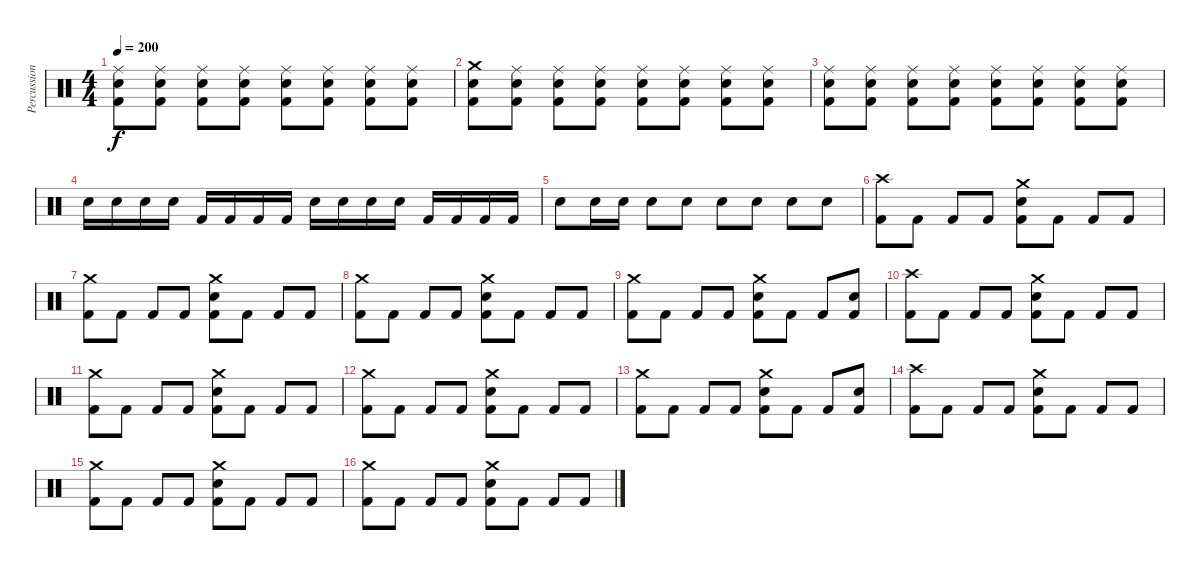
\track ("Percussion" "Percussion") {instrument percussion}
\staff {score}
\articulation defaults
\ts (4 4)
\tempo 200
\clef neutral
\ks c
("Ride (middle)" "Electric Snare (hit)" "Kick (hit) 2").8{dy f} ("Ride (middle)" "Electric Snare (hit)" "Kick (hit) 2").8 ("Ride (middle)" "Electric Snare (hit)" "Kick (hit) 2").8 ("Ride (middle)" "Electric Snare (hit)" "Kick (hit) 2").8 ("Ride (middle)" "Electric Snare (hit)" "Kick (hit) 2").8 ("Ride (middle)" "Electric Snare (hit)" "Kick (hit) 2").8 ("Ride (middle)" "Electric Snare (hit)" "Kick (hit) 2").8 ("Ride (middle)" "Electric Snare (hit)" "Kick (hit) 2").8 |
("Crash medium (hit)" "Electric Snare (hit)" "Kick (hit) 2").8 ("Ride (middle)" "Electric Snare (hit)" "Kick (hit) 2").8 ("Ride (middle)" "Electric Snare (hit)" "Kick (hit) 2").8 ("Ride (middle)" "Electric Snare (hit)" "Kick (hit) 2").8 ("Ride (middle)" "Electric Snare (hit)" "Kick (hit) 2").8 ("Ride (middle)" "Electric Snare (hit)" "Kick (hit) 2").8 ("Ride (middle)" "Electric Snare (hit)" "Kick (hit) 2").8 ("Ride (middle)" "Electric Snare (hit)" "Kick (hit) 2").8 |
("Ride (middle)" "Electric Snare (hit)" "Kick (hit) 2").8 ("Ride (middle)" "Electric Snare (hit)" "Kick (hit) 2").8 ("Ride (middle)" "Electric Snare (hit)" "Kick (hit) 2").8 ("Ride (middle)" "Electric Snare (hit)" "Kick (hit) 2").8 ("Ride (middle)" "Electric Snare (hit)" "Kick (hit) 2").8 ("Ride (middle)" "Electric Snare (hit)" "Kick (hit) 2").8 ("Ride (middle)" "Electric Snare (hit)" "Kick (hit) 2").8 ("Ride (middle)" "Electric Snare (hit)" "Kick (hit) 2").8 |
"Electric Snare (hit)".16 "Electric Snare (hit)".16 "Electric Snare (hit)".16 "Electric Snare (hit)".16 "Kick (hit) 2".16 "Kick (hit) 2".16 "Kick (hit) 2".16 "Kick (hit) 2".16 "Electric Snare (hit)".16 "Electric Snare (hit)".16 "Electric Snare (hit)".16 "Electric Snare (hit)".16 "Kick (hit) 2".16 "Kick (hit) 2".16 "Kick (hit) 2".16 "Kick (hit) 2".16 |
"Electric Snare (hit)".8 "Electric Snare (hit)".16 "Electric Snare (hit)".16 "Electric Snare (hit)".8 "Electric Snare (hit)".8 "Electric Snare (hit)".8 "Electric Snare (hit)".8 "Electric Snare (hit)".8 "Electric Snare (hit)".8 |
("Crash high (hit)" "Kick (hit) 2").8 "Kick (hit) 2".8 "Kick (hit) 2".8 "Kick (hit) 2".8 ("Crash medium (hit)" "Electric Snare (hit)" "Kick (hit) 2").8 "Kick (hit) 2".8 "Kick (hit) 2".8 "Kick (hit) 2".8 |
("Crash medium (hit)" "Kick (hit) 2").8 "Kick (hit) 2".8 "Kick (hit) 2".8 "Kick (hit) 2".8 ("Crash medium (hit)" "Electric Snare (hit)" "Kick (hit) 2").8 "Kick (hit) 2".8 "Kick (hit) 2".8 "Kick (hit) 2".8 |
("Crash medium (hit)" "Kick (hit) 2").8 "Kick (hit) 2".8 "Kick (hit) 2".8 "Kick (hit) 2".8 ("Crash medium (hit)" "Electric Snare (hit)" "Kick (hit) 2").8 "Kick (hit) 2".8 "Kick (hit) 2".8 "Kick (hit) 2".8 |
("Crash medium (hit)" "Kick (hit) 2").8 "Kick (hit) 2".8 "Kick (hit) 2".8 "Kick (hit) 2".8 ("Crash medium (hit)" "Electric Snare (hit)" "Kick (hit) 2").8 "Kick (hit) 2".8 "Kick (hit) 2".8 ("Electric Snare (hit)" "Kick (hit) 2").8 |
("Crash high (hit)" "Kick (hit) 2").8 "Kick (hit) 2".8 "Kick (hit) 2".8 "Kick (hit) 2".8 ("Crash medium (hit)" "Electric Snare (hit)" "Kick (hit) 2").8 "Kick (hit) 2".8 "Kick (hit) 2".8 "Kick (hit) 2".8 |
("Crash medium (hit)" "Kick (hit) 2").8 "Kick (hit) 2".8 "Kick (hit) 2".8 "Kick (hit) 2".8 ("Crash medium (hit)" "Electric Snare (hit)" "Kick (hit) 2").8 "Kick (hit) 2".8 "Kick (hit) 2".8 "Kick (hit) 2".8 |
("Crash medium (hit)" "Kick (hit) 2").8 "Kick (hit) 2".8 "Kick (hit) 2".8 "Kick (hit) 2".8 ("Crash medium (hit)" "Electric Snare (hit)" "Kick (hit) 2").8 "Kick (hit) 2".8 "Kick (hit) 2".8 "Kick (hit) 2".8 |
("Crash medium (hit)" "Kick (hit) 2").8 "Kick (hit) 2".8 "Kick (hit) 2".8 "Kick (hit) 2".8 ("Crash medium (hit)" "Electric Snare (hit)" "Kick (hit) 2").8 "Kick (hit) 2".8 "Kick (hit) 2".8 ("Electric Snare (hit)" "Kick (hit) 2").8 |
("Crash high (hit)" "Kick (hit) 2").8 "Kick (hit) 2".8 "Kick (hit) 2".8 "Kick (hit) 2".8 ("Crash medium (hit)" "Electric Snare (hit)" "Kick (hit) 2").8 "Kick (hit) 2".8 "Kick (hit) 2".8 "Kick (hit) 2".8 |
("Crash medium (hit)" "Kick (hit) 2").8 "Kick (hit) 2".8 "Kick (hit) 2".8 "Kick (hit) 2".8 ("Crash medium (hit)" "Electric Snare (hit)" "Kick (hit) 2").8 "Kick (hit) 2".8 "Kick (hit) 2".8 "Kick (hit) 2".8 |
("Crash medium (hit)" "Kick (hit) 2").8 "Kick (hit) 2".8 "Kick (hit) 2".8 "Kick (hit) 2".8 ("Crash medium (hit)" "Electric Snare (hit)" "Kick (hit) 2").8 "Kick (hit) 2".8 "Kick (hit) 2".8 "Kick (hit) 2".8
